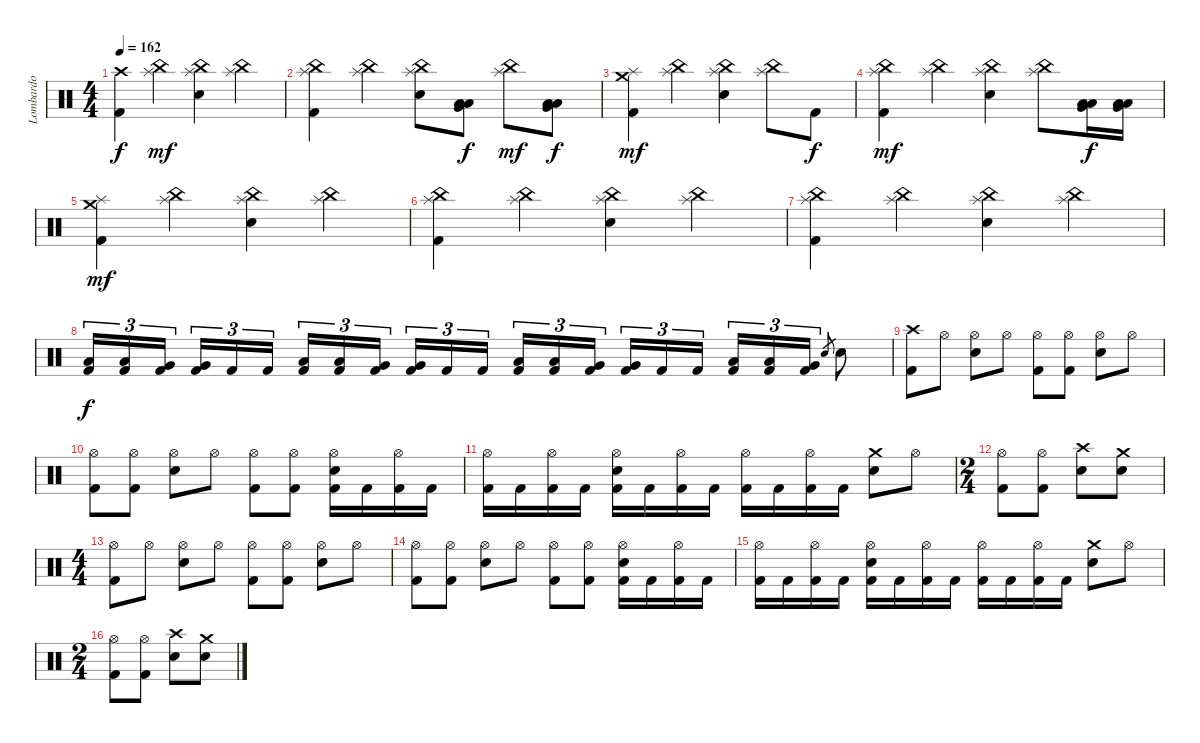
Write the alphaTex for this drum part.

\track ("Lombardo" "Lombardo") {instrument percussion}
\staff {score}
\articulation defaults
\ts (4 4)
\tempo 162
\clef neutral
\ks c
("Crash high (hit)" "Kick (hit) 2").4{dy f} ("China (hit)" "Splash (hit)").4{dy mf} ("China (hit)" "Splash (hit)" "Electric Snare (hit)").4 ("China (hit)" "Splash (hit)").4 |
("China (hit)" "Splash (hit)" "Kick (hit) 2").4 ("China (hit)" "Splash (hit)").4 ("China (hit)" "Splash (hit)" "Electric Snare (hit)").8 ("Low Floor Tom (hit)" "Very Low Tom (hit)" "Low Tom (hit)").8{dy f} ("China (hit)" "Splash (hit)").8{dy mf} ("Low Tom (hit)" "Low Floor Tom (hit)" "Very Low Tom (hit)").8{dy f} |
("Crash medium (hit)" "Splash (hit)" "Kick (hit) 2").4{dy mf} ("China (hit)" "Splash (hit)").4 ("China (hit)" "Splash (hit)" "Electric Snare (hit)").4 ("China (hit)" "Splash (hit)").8 "Kick (hit) 2".8{dy f} |
("China (hit)" "Splash (hit)" "Kick (hit) 2").4{dy mf} ("China (hit)" "Splash (hit)").4 ("China (hit)" "Splash (hit)" "Electric Snare (hit)").4 ("China (hit)" "Splash (hit)").8 ("Low Floor Tom (hit)" "Very Low Tom (hit)" "Low Tom (hit)").16{dy f} ("Low Floor Tom (hit)" "Very Low Tom (hit)" "Low Tom (hit)").16 |
("Crash medium (hit)" "Splash (hit)" "Kick (hit) 2").4{dy mf} ("China (hit)" "Splash (hit)").4 ("China (hit)" "Splash (hit)" "Electric Snare (hit)").4 ("China (hit)" "Splash (hit)").4 |
("China (hit)" "Splash (hit)" "Kick (hit) 2").4 ("China (hit)" "Splash (hit)").4 ("China (hit)" "Splash (hit)" "Electric Snare (hit)").4 ("China (hit)" "Splash (hit)").4 |
("China (hit)" "Splash (hit)" "Kick (hit) 2").4 ("China (hit)" "Splash (hit)").4 ("China (hit)" "Splash (hit)" "Electric Snare (hit)").4 ("China (hit)" "Splash (hit)").4 |
("Low Tom (hit)" "Kick (hit) 2").16{tu (3 2) dy f} ("Low Tom (hit)" "Kick (hit) 2").16{tu (3 2)} ("Very Low Tom (hit)" "Kick (hit) 2").16{tu (3 2)} ("Very Low Tom (hit)" "Kick (hit) 2").16{tu (3 2)} "Kick (hit) 2".16{tu (3 2)} "Kick (hit) 2".16{tu (3 2)} ("Low Tom (hit)" "Kick (hit) 2").16{tu (3 2)} ("Low Tom (hit)" "Kick (hit) 2").16{tu (3 2)} ("Very Low Tom (hit)" "Kick (hit) 2").16{tu (3 2)} ("Very Low Tom (hit)" "Kick (hit) 2").16{tu (3 2)} "Kick (hit) 2".16{tu (3 2)} "Kick (hit) 2".16{tu (3 2)} ("Low Tom (hit)" "Kick (hit) 2").16{tu (3 2)} ("Low Tom (hit)" "Kick (hit) 2").16{tu (3 2)} ("Very Low Tom (hit)" "Kick (hit) 2").16{tu (3 2)} ("Very Low Tom (hit)" "Kick (hit) 2").16{tu (3 2)} "Kick (hit) 2".16{tu (3 2)} "Kick (hit) 2".16{tu (3 2)} ("Low Tom (hit)" "Kick (hit) 2").16{tu (3 2)} ("Low Tom (hit)" "Kick (hit) 2").16{tu (3 2)} ("Very Low Tom (hit)" "Kick (hit) 2").16{tu (3 2)} "Electric Snare (hit)".8{gr} "Electric Snare (hit)".8 |
("Crash high (hit)" "Kick (hit) 2").8 "Hi-Hat (open)".8 ("Electric Snare (hit)" "Hi-Hat (open)").8 "Hi-Hat (open)".8 ("Kick (hit) 2" "Hi-Hat (open)").8 ("Kick (hit) 2" "Hi-Hat (open)").8 ("Electric Snare (hit)" "Hi-Hat (open)").8 "Hi-Hat (open)".8 |
("Kick (hit) 2" "Hi-Hat (open)").8 ("Kick (hit) 2" "Hi-Hat (open)").8 ("Electric Snare (hit)" "Hi-Hat (open)").8 "Hi-Hat (open)".8 ("Kick (hit) 2" "Hi-Hat (open)").8 ("Kick (hit) 2" "Hi-Hat (open)").8 ("Kick (hit) 2" "Electric Snare (hit)" "Hi-Hat (open)").16 "Kick (hit) 2".16 ("Kick (hit) 2" "Hi-Hat (open)").16 "Kick (hit) 2".16 |
("Kick (hit) 2" "Hi-Hat (open)").16 "Kick (hit) 2".16 ("Kick (hit) 2" "Hi-Hat (open)").16 "Kick (hit) 2".16 ("Kick (hit) 2" "Electric Snare (hit)" "Hi-Hat (open)").16 "Kick (hit) 2".16 ("Kick (hit) 2" "Hi-Hat (open)").16 "Kick (hit) 2".16 ("Kick (hit) 2" "Hi-Hat (open)").16 "Kick (hit) 2".16 ("Kick (hit) 2" "Hi-Hat (open)").16 "Kick (hit) 2".16 ("Electric Snare (hit)" "Crash medium (hit)").8 "Hi-Hat (open)".8 |
\ts (2 4)
("Kick (hit) 2" "Hi-Hat (open)").8 ("Kick (hit) 2" "Hi-Hat (open)").8 ("Electric Snare (hit)" "Crash high (hit)").8 ("Electric Snare (hit)" "Crash medium (hit)").8 |
\ts (4 4)
("Hi-Hat (open)" "Kick (hit) 2").8 "Hi-Hat (open)".8 ("Electric Snare (hit)" "Hi-Hat (open)").8 "Hi-Hat (open)".8 ("Kick (hit) 2" "Hi-Hat (open)").8 ("Kick (hit) 2" "Hi-Hat (open)").8 ("Electric Snare (hit)" "Hi-Hat (open)").8 "Hi-Hat (open)".8 |
("Kick (hit) 2" "Hi-Hat (open)").8 ("Kick (hit) 2" "Hi-Hat (open)").8 ("Electric Snare (hit)" "Hi-Hat (open)").8 "Hi-Hat (open)".8 ("Kick (hit) 2" "Hi-Hat (open)").8 ("Kick (hit) 2" "Hi-Hat (open)").8 ("Kick (hit) 2" "Electric Snare (hit)" "Hi-Hat (open)").16 "Kick (hit) 2".16 ("Kick (hit) 2" "Hi-Hat (open)").16 "Kick (hit) 2".16 |
("Kick (hit) 2" "Hi-Hat (open)").16 "Kick (hit) 2".16 ("Kick (hit) 2" "Hi-Hat (open)").16 "Kick (hit) 2".16 ("Kick (hit) 2" "Electric Snare (hit)" "Hi-Hat (open)").16 "Kick (hit) 2".16 ("Kick (hit) 2" "Hi-Hat (open)").16 "Kick (hit) 2".16 ("Kick (hit) 2" "Hi-Hat (open)").16 "Kick (hit) 2".16 ("Kick (hit) 2" "Hi-Hat (open)").16 "Kick (hit) 2".16 ("Electric Snare (hit)" "Crash medium (hit)").8 "Hi-Hat (open)".8 |
\ts (2 4)
("Kick (hit) 2" "Hi-Hat (open)").8 ("Kick (hit) 2" "Hi-Hat (open)").8 ("Electric Snare (hit)" "Crash high (hit)").8 ("Electric Snare (hit)" "Crash medium (hit)").8
